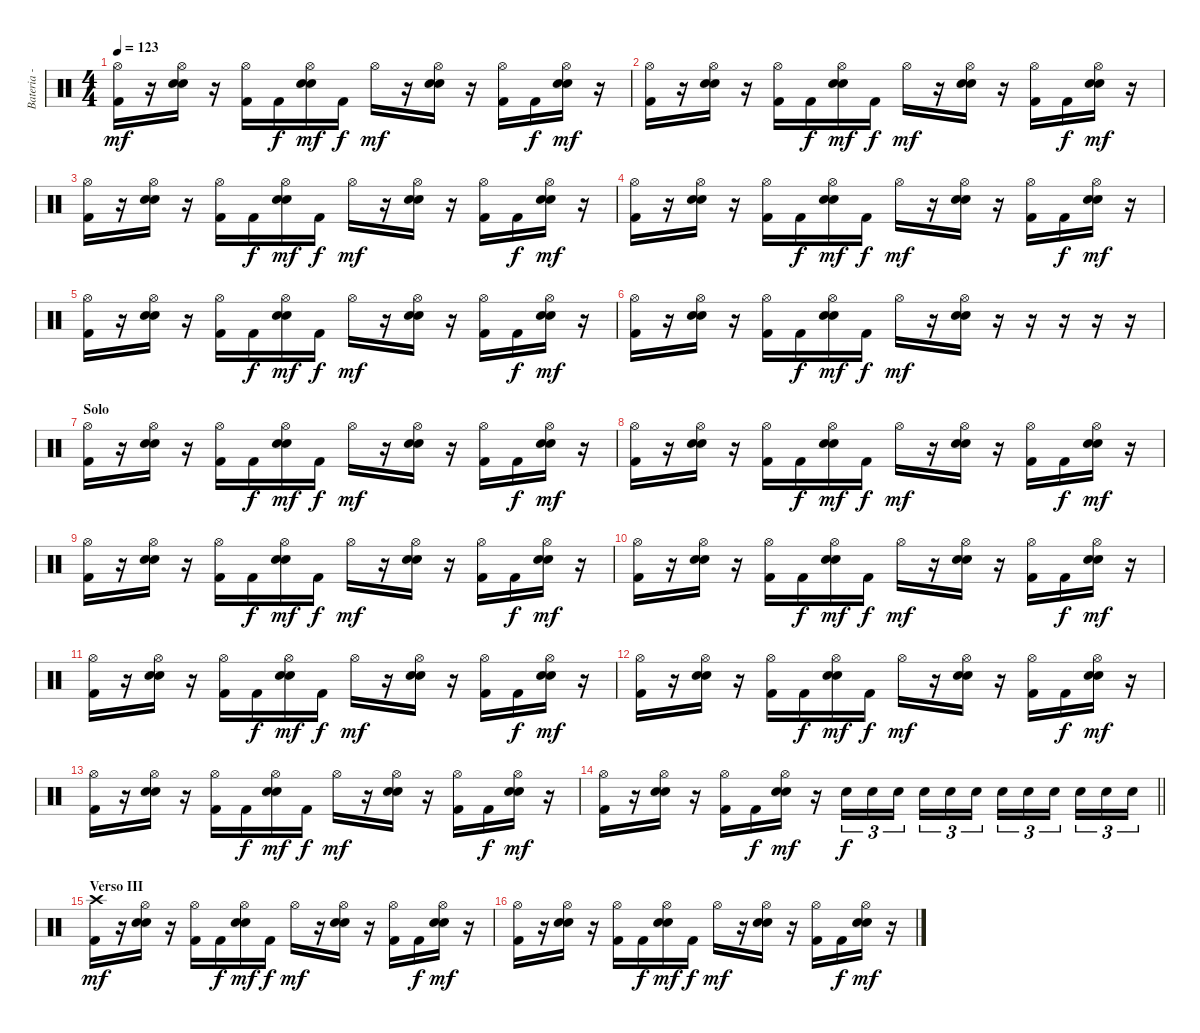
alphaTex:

\track ("Bateria - Larzon" "Bateria - ") {instrument percussion}
\staff {score}
\articulation defaults
\ts (4 4)
\tempo 123
\clef neutral
\ks c
("Kick (hit) 2" "Hi-Hat (open)").16{dy mf} r.16 ("Electric Snare (hit)" "Electric Snare (hit)" "Hi-Hat (open)").16 r.16 ("Kick (hit) 2" "Hi-Hat (open)").16 "Kick (hit) 2".16{dy f} ("Electric Snare (hit)" "Electric Snare (hit)" "Hi-Hat (open)").16{dy mf} "Kick (hit) 2".16{dy f} "Hi-Hat (open)".16{dy mf} r.16 ("Electric Snare (hit)" "Electric Snare (hit)" "Hi-Hat (open)").16 r.16 ("Kick (hit) 2" "Hi-Hat (open)").16 "Kick (hit) 2".16{dy f} ("Electric Snare (hit)" "Electric Snare (hit)" "Hi-Hat (open)").16{dy mf} r.16 |
("Kick (hit) 2" "Hi-Hat (open)").16 r.16 ("Electric Snare (hit)" "Electric Snare (hit)" "Hi-Hat (open)").16 r.16 ("Kick (hit) 2" "Hi-Hat (open)").16 "Kick (hit) 2".16{dy f} ("Electric Snare (hit)" "Electric Snare (hit)" "Hi-Hat (open)").16{dy mf} "Kick (hit) 2".16{dy f} "Hi-Hat (open)".16{dy mf} r.16 ("Electric Snare (hit)" "Electric Snare (hit)" "Hi-Hat (open)").16 r.16 ("Kick (hit) 2" "Hi-Hat (open)").16 "Kick (hit) 2".16{dy f} ("Electric Snare (hit)" "Electric Snare (hit)" "Hi-Hat (open)").16{dy mf} r.16 |
("Kick (hit) 2" "Hi-Hat (open)").16 r.16 ("Electric Snare (hit)" "Electric Snare (hit)" "Hi-Hat (open)").16 r.16 ("Kick (hit) 2" "Hi-Hat (open)").16 "Kick (hit) 2".16{dy f} ("Electric Snare (hit)" "Electric Snare (hit)" "Hi-Hat (open)").16{dy mf} "Kick (hit) 2".16{dy f} "Hi-Hat (open)".16{dy mf} r.16 ("Electric Snare (hit)" "Electric Snare (hit)" "Hi-Hat (open)").16 r.16 ("Kick (hit) 2" "Hi-Hat (open)").16 "Kick (hit) 2".16{dy f} ("Electric Snare (hit)" "Electric Snare (hit)" "Hi-Hat (open)").16{dy mf} r.16 |
("Kick (hit) 2" "Hi-Hat (open)").16 r.16 ("Electric Snare (hit)" "Electric Snare (hit)" "Hi-Hat (open)").16 r.16 ("Kick (hit) 2" "Hi-Hat (open)").16 "Kick (hit) 2".16{dy f} ("Electric Snare (hit)" "Electric Snare (hit)" "Hi-Hat (open)").16{dy mf} "Kick (hit) 2".16{dy f} "Hi-Hat (open)".16{dy mf} r.16 ("Electric Snare (hit)" "Electric Snare (hit)" "Hi-Hat (open)").16 r.16 ("Kick (hit) 2" "Hi-Hat (open)").16 "Kick (hit) 2".16{dy f} ("Electric Snare (hit)" "Electric Snare (hit)" "Hi-Hat (open)").16{dy mf} r.16 |
("Kick (hit) 2" "Hi-Hat (open)").16 r.16 ("Electric Snare (hit)" "Electric Snare (hit)" "Hi-Hat (open)").16 r.16 ("Kick (hit) 2" "Hi-Hat (open)").16 "Kick (hit) 2".16{dy f} ("Electric Snare (hit)" "Electric Snare (hit)" "Hi-Hat (open)").16{dy mf} "Kick (hit) 2".16{dy f} "Hi-Hat (open)".16{dy mf} r.16 ("Electric Snare (hit)" "Electric Snare (hit)" "Hi-Hat (open)").16 r.16 ("Kick (hit) 2" "Hi-Hat (open)").16 "Kick (hit) 2".16{dy f} ("Electric Snare (hit)" "Electric Snare (hit)" "Hi-Hat (open)").16{dy mf} r.16 |
("Kick (hit) 2" "Hi-Hat (open)").16 r.16 ("Electric Snare (hit)" "Electric Snare (hit)" "Hi-Hat (open)").16 r.16 ("Kick (hit) 2" "Hi-Hat (open)").16 "Kick (hit) 2".16{dy f} ("Electric Snare (hit)" "Electric Snare (hit)" "Hi-Hat (open)").16{dy mf} "Kick (hit) 2".16{dy f} "Hi-Hat (open)".16{dy mf} r.16 ("Electric Snare (hit)" "Electric Snare (hit)" "Hi-Hat (open)").16 r.16 r.16 r.16 r.16 r.16 |
\section ("" "Solo")
("Kick (hit) 2" "Hi-Hat (open)").16 r.16 ("Electric Snare (hit)" "Electric Snare (hit)" "Hi-Hat (open)").16 r.16 ("Kick (hit) 2" "Hi-Hat (open)").16 "Kick (hit) 2".16{dy f} ("Electric Snare (hit)" "Electric Snare (hit)" "Hi-Hat (open)").16{dy mf} "Kick (hit) 2".16{dy f} "Hi-Hat (open)".16{dy mf} r.16 ("Electric Snare (hit)" "Electric Snare (hit)" "Hi-Hat (open)").16 r.16 ("Kick (hit) 2" "Hi-Hat (open)").16 "Kick (hit) 2".16{dy f} ("Electric Snare (hit)" "Electric Snare (hit)" "Hi-Hat (open)").16{dy mf} r.16 |
("Kick (hit) 2" "Hi-Hat (open)").16 r.16 ("Electric Snare (hit)" "Electric Snare (hit)" "Hi-Hat (open)").16 r.16 ("Kick (hit) 2" "Hi-Hat (open)").16 "Kick (hit) 2".16{dy f} ("Electric Snare (hit)" "Electric Snare (hit)" "Hi-Hat (open)").16{dy mf} "Kick (hit) 2".16{dy f} "Hi-Hat (open)".16{dy mf} r.16 ("Electric Snare (hit)" "Electric Snare (hit)" "Hi-Hat (open)").16 r.16 ("Kick (hit) 2" "Hi-Hat (open)").16 "Kick (hit) 2".16{dy f} ("Electric Snare (hit)" "Electric Snare (hit)" "Hi-Hat (open)").16{dy mf} r.16 |
("Kick (hit) 2" "Hi-Hat (open)").16 r.16 ("Electric Snare (hit)" "Electric Snare (hit)" "Hi-Hat (open)").16 r.16 ("Kick (hit) 2" "Hi-Hat (open)").16 "Kick (hit) 2".16{dy f} ("Electric Snare (hit)" "Electric Snare (hit)" "Hi-Hat (open)").16{dy mf} "Kick (hit) 2".16{dy f} "Hi-Hat (open)".16{dy mf} r.16 ("Electric Snare (hit)" "Electric Snare (hit)" "Hi-Hat (open)").16 r.16 ("Kick (hit) 2" "Hi-Hat (open)").16 "Kick (hit) 2".16{dy f} ("Electric Snare (hit)" "Electric Snare (hit)" "Hi-Hat (open)").16{dy mf} r.16 |
("Kick (hit) 2" "Hi-Hat (open)").16 r.16 ("Electric Snare (hit)" "Electric Snare (hit)" "Hi-Hat (open)").16 r.16 ("Kick (hit) 2" "Hi-Hat (open)").16 "Kick (hit) 2".16{dy f} ("Electric Snare (hit)" "Electric Snare (hit)" "Hi-Hat (open)").16{dy mf} "Kick (hit) 2".16{dy f} "Hi-Hat (open)".16{dy mf} r.16 ("Electric Snare (hit)" "Electric Snare (hit)" "Hi-Hat (open)").16 r.16 ("Kick (hit) 2" "Hi-Hat (open)").16 "Kick (hit) 2".16{dy f} ("Electric Snare (hit)" "Electric Snare (hit)" "Hi-Hat (open)").16{dy mf} r.16 |
("Kick (hit) 2" "Hi-Hat (open)").16 r.16 ("Electric Snare (hit)" "Electric Snare (hit)" "Hi-Hat (open)").16 r.16 ("Kick (hit) 2" "Hi-Hat (open)").16 "Kick (hit) 2".16{dy f} ("Electric Snare (hit)" "Electric Snare (hit)" "Hi-Hat (open)").16{dy mf} "Kick (hit) 2".16{dy f} "Hi-Hat (open)".16{dy mf} r.16 ("Electric Snare (hit)" "Electric Snare (hit)" "Hi-Hat (open)").16 r.16 ("Kick (hit) 2" "Hi-Hat (open)").16 "Kick (hit) 2".16{dy f} ("Electric Snare (hit)" "Electric Snare (hit)" "Hi-Hat (open)").16{dy mf} r.16 |
("Kick (hit) 2" "Hi-Hat (open)").16 r.16 ("Electric Snare (hit)" "Electric Snare (hit)" "Hi-Hat (open)").16 r.16 ("Kick (hit) 2" "Hi-Hat (open)").16 "Kick (hit) 2".16{dy f} ("Electric Snare (hit)" "Electric Snare (hit)" "Hi-Hat (open)").16{dy mf} "Kick (hit) 2".16{dy f} "Hi-Hat (open)".16{dy mf} r.16 ("Electric Snare (hit)" "Electric Snare (hit)" "Hi-Hat (open)").16 r.16 ("Kick (hit) 2" "Hi-Hat (open)").16 "Kick (hit) 2".16{dy f} ("Electric Snare (hit)" "Electric Snare (hit)" "Hi-Hat (open)").16{dy mf} r.16 |
("Kick (hit) 2" "Hi-Hat (open)").16 r.16 ("Electric Snare (hit)" "Electric Snare (hit)" "Hi-Hat (open)").16 r.16 ("Kick (hit) 2" "Hi-Hat (open)").16 "Kick (hit) 2".16{dy f} ("Electric Snare (hit)" "Electric Snare (hit)" "Hi-Hat (open)").16{dy mf} "Kick (hit) 2".16{dy f} "Hi-Hat (open)".16{dy mf} r.16 ("Electric Snare (hit)" "Electric Snare (hit)" "Hi-Hat (open)").16 r.16 ("Kick (hit) 2" "Hi-Hat (open)").16 "Kick (hit) 2".16{dy f} ("Electric Snare (hit)" "Electric Snare (hit)" "Hi-Hat (open)").16{dy mf} r.16 |
\barLineRight lightlight
("Kick (hit) 2" "Hi-Hat (open)").16 r.16 ("Electric Snare (hit)" "Electric Snare (hit)" "Hi-Hat (open)").16 r.16 ("Kick (hit) 2" "Hi-Hat (open)").16 "Kick (hit) 2".16{dy f} ("Electric Snare (hit)" "Electric Snare (hit)" "Hi-Hat (open)").16{dy mf} r.16 "Electric Snare (hit)".16{tu (3 2) dy f} "Electric Snare (hit)".16{tu (3 2)} "Electric Snare (hit)".16{tu (3 2)} "Electric Snare (hit)".16{tu (3 2)} "Electric Snare (hit)".16{tu (3 2)} "Electric Snare (hit)".16{tu (3 2)} "Electric Snare (hit)".16{tu (3 2)} "Electric Snare (hit)".16{tu (3 2)} "Electric Snare (hit)".16{tu (3 2)} "Electric Snare (hit)".16{tu (3 2)} "Electric Snare (hit)".16{tu (3 2)} "Electric Snare (hit)".16{tu (3 2)} |
\section ("" "Verso III")
("Kick (hit) 2" "Crash high (hit)").16{dy mf} r.16 ("Electric Snare (hit)" "Electric Snare (hit)" "Hi-Hat (open)").16 r.16 ("Kick (hit) 2" "Hi-Hat (open)").16 "Kick (hit) 2".16{dy f} ("Electric Snare (hit)" "Electric Snare (hit)" "Hi-Hat (open)").16{dy mf} "Kick (hit) 2".16{dy f} "Hi-Hat (open)".16{dy mf} r.16 ("Electric Snare (hit)" "Electric Snare (hit)" "Hi-Hat (open)").16 r.16 ("Kick (hit) 2" "Hi-Hat (open)").16 "Kick (hit) 2".16{dy f} ("Electric Snare (hit)" "Electric Snare (hit)" "Hi-Hat (open)").16{dy mf} r.16 |
("Kick (hit) 2" "Hi-Hat (open)").16 r.16 ("Electric Snare (hit)" "Electric Snare (hit)" "Hi-Hat (open)").16 r.16 ("Kick (hit) 2" "Hi-Hat (open)").16 "Kick (hit) 2".16{dy f} ("Electric Snare (hit)" "Electric Snare (hit)" "Hi-Hat (open)").16{dy mf} "Kick (hit) 2".16{dy f} "Hi-Hat (open)".16{dy mf} r.16 ("Electric Snare (hit)" "Electric Snare (hit)" "Hi-Hat (open)").16 r.16 ("Kick (hit) 2" "Hi-Hat (open)").16 "Kick (hit) 2".16{dy f} ("Electric Snare (hit)" "Electric Snare (hit)" "Hi-Hat (open)").16{dy mf} r.16
